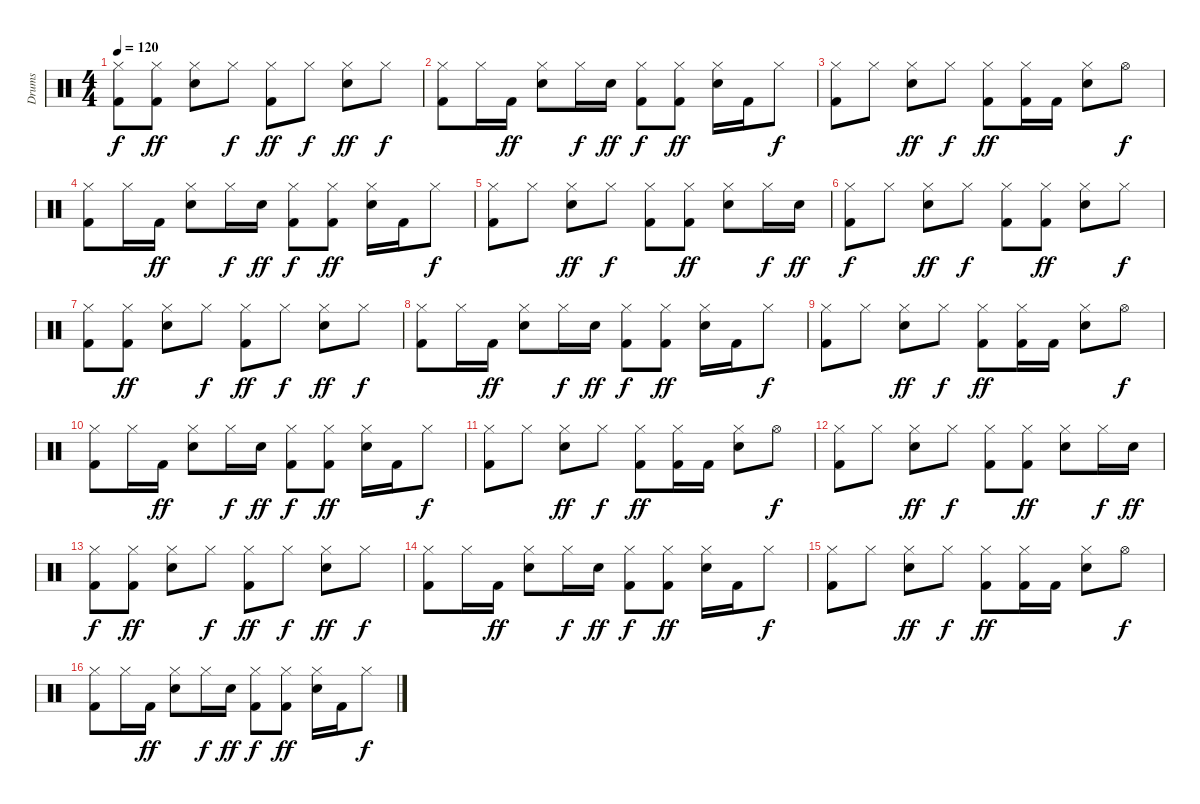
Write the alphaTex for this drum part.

\track ("Drums" "Drums") {instrument percussion}
\staff {score}
\articulation defaults
\ts (4 4)
\tempo 120
\clef neutral
\ks c
("Hi-Hat (closed)" "Kick (hit) 2").8{dy f} ("Hi-Hat (closed)" "Kick (hit) 2").8{dy ff} ("Hi-Hat (closed)" "Electric Snare (hit)").8 "Hi-Hat (closed)".8{dy f} ("Hi-Hat (closed)" "Kick (hit) 2").8{dy ff} "Hi-Hat (closed)".8{dy f} ("Hi-Hat (closed)" "Electric Snare (hit)").8{dy ff} "Hi-Hat (closed)".8{dy f} |
("Hi-Hat (closed)" "Kick (hit) 2").8 "Hi-Hat (closed)".16 "Kick (hit) 2".16{dy ff} ("Hi-Hat (closed)" "Electric Snare (hit)").8 "Hi-Hat (closed)".16{dy f} "Electric Snare (hit)".16{dy ff} ("Hi-Hat (closed)" "Kick (hit) 2").8{dy f} ("Hi-Hat (closed)" "Kick (hit) 2").8{dy ff} ("Hi-Hat (closed)" "Electric Snare (hit)").16 "Kick (hit) 2".16 "Hi-Hat (closed)".8{dy f} |
("Hi-Hat (closed)" "Kick (hit) 2").8 "Hi-Hat (closed)".8 ("Hi-Hat (closed)" "Electric Snare (hit)").8{dy ff} "Hi-Hat (closed)".8{dy f} ("Hi-Hat (closed)" "Kick (hit) 2").8{dy ff} ("Hi-Hat (closed)" "Kick (hit) 2").16 "Kick (hit) 2".16 ("Hi-Hat (closed)" "Electric Snare (hit)").8 "Hi-Hat (open)".8{dy f} |
("Hi-Hat (closed)" "Kick (hit) 2").8 "Hi-Hat (closed)".16 "Kick (hit) 2".16{dy ff} ("Hi-Hat (closed)" "Electric Snare (hit)").8 "Hi-Hat (closed)".16{dy f} "Electric Snare (hit)".16{dy ff} ("Hi-Hat (closed)" "Kick (hit) 2").8{dy f} ("Hi-Hat (closed)" "Kick (hit) 2").8{dy ff} ("Hi-Hat (closed)" "Electric Snare (hit)").16 "Kick (hit) 2".16 "Hi-Hat (closed)".8{dy f} |
("Hi-Hat (closed)" "Kick (hit) 2").8 "Hi-Hat (closed)".8 ("Hi-Hat (closed)" "Electric Snare (hit)").8{dy ff} "Hi-Hat (closed)".8{dy f} ("Hi-Hat (closed)" "Kick (hit) 2").8 ("Hi-Hat (closed)" "Kick (hit) 2").8{dy ff} ("Hi-Hat (closed)" "Electric Snare (hit)").8 "Hi-Hat (closed)".16{dy f} "Electric Snare (hit)".16{dy ff} |
("Hi-Hat (closed)" "Kick (hit) 2").8{dy f} "Hi-Hat (closed)".8 ("Hi-Hat (closed)" "Electric Snare (hit)").8{dy ff} "Hi-Hat (closed)".8{dy f} ("Hi-Hat (closed)" "Kick (hit) 2").8 ("Hi-Hat (closed)" "Kick (hit) 2").8{dy ff} ("Hi-Hat (closed)" "Electric Snare (hit)").8 "Hi-Hat (closed)".8{dy f} |
("Hi-Hat (closed)" "Kick (hit) 2").8 ("Hi-Hat (closed)" "Kick (hit) 2").8{dy ff} ("Hi-Hat (closed)" "Electric Snare (hit)").8 "Hi-Hat (closed)".8{dy f} ("Hi-Hat (closed)" "Kick (hit) 2").8{dy ff} "Hi-Hat (closed)".8{dy f} ("Hi-Hat (closed)" "Electric Snare (hit)").8{dy ff} "Hi-Hat (closed)".8{dy f} |
("Hi-Hat (closed)" "Kick (hit) 2").8 "Hi-Hat (closed)".16 "Kick (hit) 2".16{dy ff} ("Hi-Hat (closed)" "Electric Snare (hit)").8 "Hi-Hat (closed)".16{dy f} "Electric Snare (hit)".16{dy ff} ("Hi-Hat (closed)" "Kick (hit) 2").8{dy f} ("Hi-Hat (closed)" "Kick (hit) 2").8{dy ff} ("Hi-Hat (closed)" "Electric Snare (hit)").16 "Kick (hit) 2".16 "Hi-Hat (closed)".8{dy f} |
("Hi-Hat (closed)" "Kick (hit) 2").8 "Hi-Hat (closed)".8 ("Hi-Hat (closed)" "Electric Snare (hit)").8{dy ff} "Hi-Hat (closed)".8{dy f} ("Hi-Hat (closed)" "Kick (hit) 2").8{dy ff} ("Hi-Hat (closed)" "Kick (hit) 2").16 "Kick (hit) 2".16 ("Hi-Hat (closed)" "Electric Snare (hit)").8 "Hi-Hat (open)".8{dy f} |
("Hi-Hat (closed)" "Kick (hit) 2").8 "Hi-Hat (closed)".16 "Kick (hit) 2".16{dy ff} ("Hi-Hat (closed)" "Electric Snare (hit)").8 "Hi-Hat (closed)".16{dy f} "Electric Snare (hit)".16{dy ff} ("Hi-Hat (closed)" "Kick (hit) 2").8{dy f} ("Hi-Hat (closed)" "Kick (hit) 2").8{dy ff} ("Hi-Hat (closed)" "Electric Snare (hit)").16 "Kick (hit) 2".16 "Hi-Hat (closed)".8{dy f} |
("Hi-Hat (closed)" "Kick (hit) 2").8 "Hi-Hat (closed)".8 ("Hi-Hat (closed)" "Electric Snare (hit)").8{dy ff} "Hi-Hat (closed)".8{dy f} ("Hi-Hat (closed)" "Kick (hit) 2").8{dy ff} ("Hi-Hat (closed)" "Kick (hit) 2").16 "Kick (hit) 2".16 ("Hi-Hat (closed)" "Electric Snare (hit)").8 "Hi-Hat (open)".8{dy f} |
("Hi-Hat (closed)" "Kick (hit) 2").8 "Hi-Hat (closed)".8 ("Hi-Hat (closed)" "Electric Snare (hit)").8{dy ff} "Hi-Hat (closed)".8{dy f} ("Hi-Hat (closed)" "Kick (hit) 2").8 ("Hi-Hat (closed)" "Kick (hit) 2").8{dy ff} ("Hi-Hat (closed)" "Electric Snare (hit)").8 "Hi-Hat (closed)".16{dy f} "Electric Snare (hit)".16{dy ff} |
("Hi-Hat (closed)" "Kick (hit) 2").8{dy f} ("Hi-Hat (closed)" "Kick (hit) 2").8{dy ff} ("Hi-Hat (closed)" "Electric Snare (hit)").8 "Hi-Hat (closed)".8{dy f} ("Hi-Hat (closed)" "Kick (hit) 2").8{dy ff} "Hi-Hat (closed)".8{dy f} ("Hi-Hat (closed)" "Electric Snare (hit)").8{dy ff} "Hi-Hat (closed)".8{dy f} |
("Hi-Hat (closed)" "Kick (hit) 2").8 "Hi-Hat (closed)".16 "Kick (hit) 2".16{dy ff} ("Hi-Hat (closed)" "Electric Snare (hit)").8 "Hi-Hat (closed)".16{dy f} "Electric Snare (hit)".16{dy ff} ("Hi-Hat (closed)" "Kick (hit) 2").8{dy f} ("Hi-Hat (closed)" "Kick (hit) 2").8{dy ff} ("Hi-Hat (closed)" "Electric Snare (hit)").16 "Kick (hit) 2".16 "Hi-Hat (closed)".8{dy f} |
("Hi-Hat (closed)" "Kick (hit) 2").8 "Hi-Hat (closed)".8 ("Hi-Hat (closed)" "Electric Snare (hit)").8{dy ff} "Hi-Hat (closed)".8{dy f} ("Hi-Hat (closed)" "Kick (hit) 2").8{dy ff} ("Hi-Hat (closed)" "Kick (hit) 2").16 "Kick (hit) 2".16 ("Hi-Hat (closed)" "Electric Snare (hit)").8 "Hi-Hat (open)".8{dy f} |
("Hi-Hat (closed)" "Kick (hit) 2").8 "Hi-Hat (closed)".16 "Kick (hit) 2".16{dy ff} ("Hi-Hat (closed)" "Electric Snare (hit)").8 "Hi-Hat (closed)".16{dy f} "Electric Snare (hit)".16{dy ff} ("Hi-Hat (closed)" "Kick (hit) 2").8{dy f} ("Hi-Hat (closed)" "Kick (hit) 2").8{dy ff} ("Hi-Hat (closed)" "Electric Snare (hit)").16 "Kick (hit) 2".16 "Hi-Hat (closed)".8{dy f}
